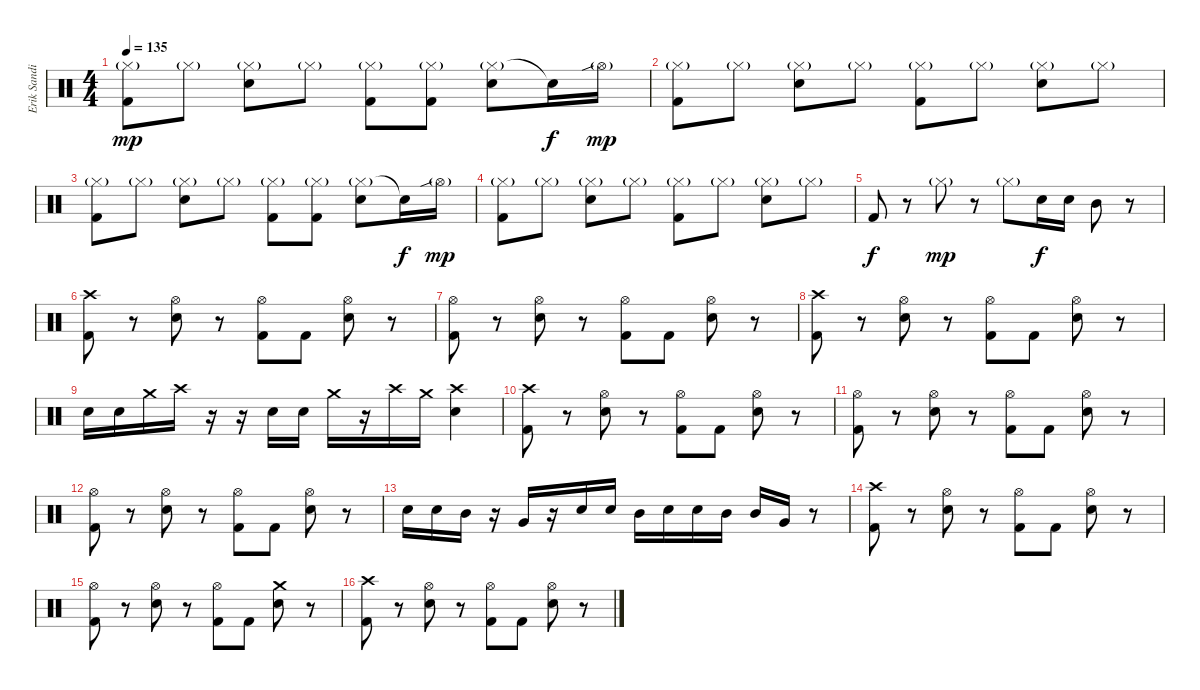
\track ("Erik Sandin" "Erik Sandi") {instrument percussion}
\staff {score}
\articulation defaults
\ts (4 4)
\tempo 135
\clef neutral
\ks c
("Hi-Hat (closed)"{g} "Kick (hit) 2").8{dy mp} "Hi-Hat (closed)"{g}.8 ("Hi-Hat (closed)"{g} "Snare (hit) 2").8 "Hi-Hat (closed)"{g}.8 ("Hi-Hat (closed)"{g} "Kick (hit) 2").8 ("Hi-Hat (closed)"{g} "Kick (hit) 2").8 ("Hi-Hat (closed)"{g} "Snare (hit) 2").8 "Snare (hit)"{t}.16{dy f} "Hi-Hat (open)"{sib g}.16{dy mp} |
("Hi-Hat (closed)"{g} "Kick (hit) 2").8 "Hi-Hat (closed)"{g}.8 ("Hi-Hat (closed)"{g} "Snare (hit) 2").8 "Hi-Hat (closed)"{g}.8 ("Hi-Hat (closed)"{g} "Kick (hit) 2").8 "Hi-Hat (closed)"{g}.8 ("Hi-Hat (closed)"{g} "Snare (hit) 2").8 "Hi-Hat (closed)"{g}.8 |
("Hi-Hat (closed)"{g} "Kick (hit) 2").8 "Hi-Hat (closed)"{g}.8 ("Hi-Hat (closed)"{g} "Snare (hit) 2").8 "Hi-Hat (closed)"{g}.8 ("Hi-Hat (closed)"{g} "Kick (hit) 2").8 ("Hi-Hat (closed)"{g} "Kick (hit) 2").8 ("Hi-Hat (closed)"{g} "Snare (hit) 2").8 "Snare (hit)"{t}.16{dy f} "Hi-Hat (open)"{sib g}.16{dy mp} |
("Hi-Hat (closed)"{g} "Kick (hit) 2").8 "Hi-Hat (closed)"{g}.8 ("Hi-Hat (closed)"{g} "Snare (hit) 2").8 "Hi-Hat (closed)"{g}.8 ("Hi-Hat (closed)"{g} "Kick (hit) 2").8 "Hi-Hat (closed)"{g}.8 ("Hi-Hat (closed)"{g} "Snare (hit) 2").8 "Hi-Hat (closed)"{g}.8 |
"Kick (hit) 2".8{dy f} r.8 "Hi-Hat (closed)"{g}.8{dy mp} r.8 "Hi-Hat (closed)"{g}.8 "Snare (hit) 2".16{dy f} "Snare (hit) 2".16 "Mid Tom (hit)".8 r.8 |
("Crash high (hit)" "Kick (hit) 2").8 r.8 ("Hi-Hat (open)" "Snare (hit) 2").8 r.8 ("Hi-Hat (open)" "Kick (hit) 2").8 "Kick (hit) 2".8 ("Hi-Hat (open)" "Snare (hit) 2").8 r.8 |
("Hi-Hat (open)" "Kick (hit) 2").8 r.8 ("Hi-Hat (open)" "Snare (hit) 2").8 r.8 ("Hi-Hat (open)" "Kick (hit) 2").8 "Kick (hit) 2".8 ("Hi-Hat (open)" "Snare (hit) 2").8 r.8 |
("Crash high (hit)" "Kick (hit) 2").8 r.8 ("Hi-Hat (open)" "Snare (hit) 2").8 r.8 ("Hi-Hat (open)" "Kick (hit) 2").8 "Kick (hit) 2".8 ("Hi-Hat (open)" "Snare (hit) 2").8 r.8 |
"Snare (hit) 2".16 "Snare (hit) 2".16 "Crash medium (hit)".16 "Crash high (hit)".16 r.16 r.16 "Snare (hit) 2".16 "Snare (hit) 2".16 "Crash medium (hit)".16 r.16 "Crash high (hit)".16 "Crash medium (hit)".16 ("Crash high (hit)" "Snare (hit) 2").4 |
("Crash high (hit)" "Kick (hit) 2").8 r.8 ("Hi-Hat (open)" "Snare (hit) 2").8 r.8 ("Hi-Hat (open)" "Kick (hit) 2").8 "Kick (hit) 2".8 ("Hi-Hat (open)" "Snare (hit) 2").8 r.8 |
("Hi-Hat (open)" "Kick (hit) 2").8 r.8 ("Hi-Hat (open)" "Snare (hit) 2").8 r.8 ("Hi-Hat (open)" "Kick (hit) 2").8 "Kick (hit) 2".8 ("Hi-Hat (open)" "Snare (hit) 2").8 r.8 |
("Hi-Hat (open)" "Kick (hit) 2").8 r.8 ("Hi-Hat (open)" "Snare (hit) 2").8 r.8 ("Hi-Hat (open)" "Kick (hit) 2").8 "Kick (hit) 2".8 ("Hi-Hat (open)" "Snare (hit) 2").8 r.8 |
"Snare (hit) 2".16 "Snare (hit) 2".16 "Mid Tom (hit)".16 r.16 "Very Low Tom (hit)".16 r.16 "Snare (hit) 2".16 "Snare (hit) 2".16 "Mid Tom (hit)".16 "Snare (hit) 2".16 "Snare (hit) 2".16 "Mid Tom (hit)".16 "Mid Tom (hit)".16 "Very Low Tom (hit)".16 r.8 |
("Crash high (hit)" "Kick (hit) 2").8 r.8 ("Hi-Hat (open)" "Snare (hit) 2").8 r.8 ("Hi-Hat (open)" "Kick (hit) 2").8 "Kick (hit) 2".8 ("Hi-Hat (open)" "Snare (hit) 2").8 r.8 |
("Hi-Hat (open)" "Kick (hit) 2").8 r.8 ("Hi-Hat (open)" "Snare (hit) 2").8 r.8 ("Hi-Hat (open)" "Kick (hit) 2").8 "Kick (hit) 2".8 ("Crash medium (hit)" "Snare (hit) 2").8 r.8 |
("Crash high (hit)" "Kick (hit) 2").8 r.8 ("Hi-Hat (open)" "Snare (hit) 2").8 r.8 ("Hi-Hat (open)" "Kick (hit) 2").8 "Kick (hit) 2".8 ("Hi-Hat (open)" "Snare (hit) 2").8 r.8
